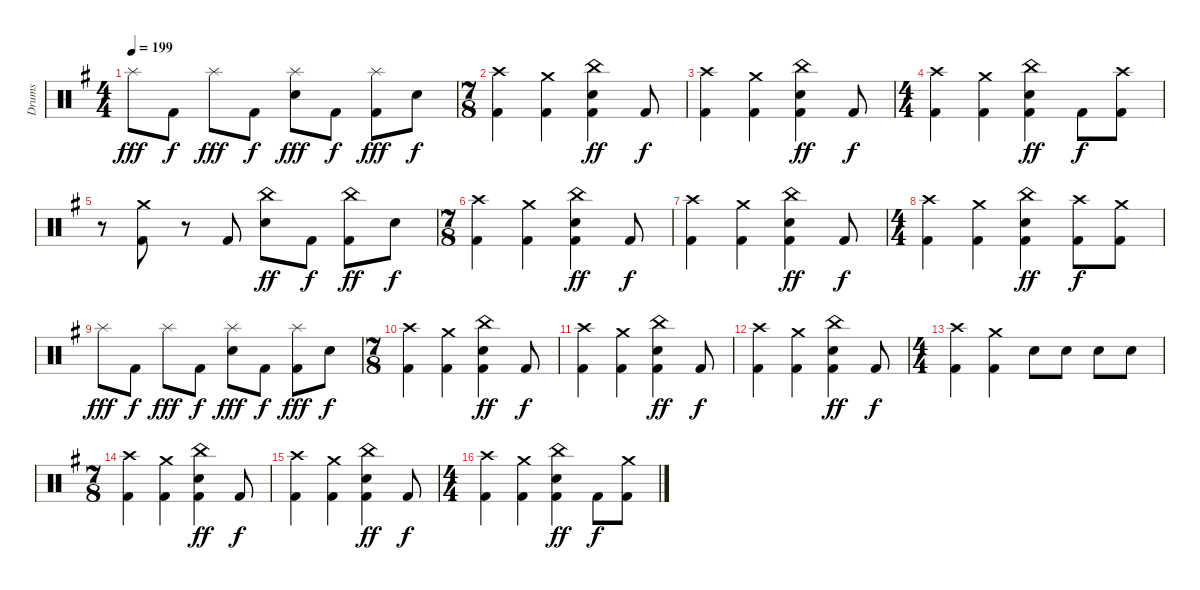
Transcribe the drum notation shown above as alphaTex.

\track ("Drums" "Drums") {instrument percussion}
\staff {score}
\articulation defaults
\ts (4 4)
\tempo 199
\clef neutral
\ks eminor "Splash (hit)".8{dy fff} "Kick (hit) 2".8{dy f} "Splash (hit)".8{dy fff} "Kick (hit) 2".8{dy f}
("Splash (hit)" "Electric Snare (hit)").8{dy fff} "Kick (hit) 2".8{dy f} ("Splash (hit)" "Kick (hit) 2").8{dy fff} "Electric Snare (hit)".8{dy f} |
\ts (7 8)
("Crash high (hit)" "Kick (hit) 2").4 ("Crash medium (hit)" "Kick (hit) 2").4 ("China (hit)" "Electric Snare (hit)" "Kick (hit) 2").4{dy ff} "Kick (hit) 2".8{dy f} |
("Crash high (hit)" "Kick (hit) 2").4 ("Crash medium (hit)" "Kick (hit) 2").4 ("China (hit)" "Electric Snare (hit)" "Kick (hit) 2").4{dy ff} "Kick (hit) 2".8{dy f} |
\ts (4 4)
("Crash high (hit)" "Kick (hit) 2").4 ("Crash medium (hit)" "Kick (hit) 2").4 ("China (hit)" "Electric Snare (hit)" "Kick (hit) 2").4{dy ff} "Kick (hit) 2".8{dy f} ("Crash high (hit)" "Kick (hit) 2").8 |
r.8 ("Crash medium (hit)" "Kick (hit) 2").8 r.8 "Kick (hit) 2".8 ("China (hit)" "Electric Snare (hit)").8{dy ff} "Kick (hit) 2".8{dy f} ("China (hit)" "Kick (hit) 2").8{dy ff} "Electric Snare (hit)".8{dy f} |
\ts (7 8)
("Crash high (hit)" "Kick (hit) 2").4 ("Crash medium (hit)" "Kick (hit) 2").4 ("China (hit)" "Electric Snare (hit)" "Kick (hit) 2").4{dy ff} "Kick (hit) 2".8{dy f} |
("Crash high (hit)" "Kick (hit) 2").4 ("Crash medium (hit)" "Kick (hit) 2").4 ("China (hit)" "Electric Snare (hit)" "Kick (hit) 2").4{dy ff} "Kick (hit) 2".8{dy f} |
\ts (4 4)
("Crash high (hit)" "Kick (hit) 2").4 ("Crash medium (hit)" "Kick (hit) 2").4 ("China (hit)" "Electric Snare (hit)" "Kick (hit) 2").4{dy ff} ("Crash high (hit)" "Kick (hit) 2").8{dy f} ("Crash medium (hit)" "Kick (hit) 2").8 |
"Splash (hit)".8{dy fff} "Kick (hit) 2".8{dy f} "Splash (hit)".8{dy fff} "Kick (hit) 2".8{dy f} ("Splash (hit)" "Electric Snare (hit)").8{dy fff} "Kick (hit) 2".8{dy f} ("Splash (hit)" "Kick (hit) 2").8{dy fff} "Electric Snare (hit)".8{dy f} |
\ts (7 8)
("Crash high (hit)" "Kick (hit) 2").4 ("Crash medium (hit)" "Kick (hit) 2").4 ("China (hit)" "Electric Snare (hit)" "Kick (hit) 2").4{dy ff} "Kick (hit) 2".8{dy f} |
("Crash high (hit)" "Kick (hit) 2").4 ("Crash medium (hit)" "Kick (hit) 2").4 ("China (hit)" "Electric Snare (hit)" "Kick (hit) 2").4{dy ff} "Kick (hit) 2".8{dy f} |
("Crash high (hit)" "Kick (hit) 2").4 ("Crash medium (hit)" "Kick (hit) 2").4 ("China (hit)" "Electric Snare (hit)" "Kick (hit) 2").4{dy ff} "Kick (hit) 2".8{dy f} |
\ts (4 4)
("Crash high (hit)" "Kick (hit) 2").4 ("Crash medium (hit)" "Kick (hit) 2").4 "Electric Snare (hit)".8 "Electric Snare (hit)".8 "Electric Snare (hit)".8 "Electric Snare (hit)".8 |
\ts (7 8)
("Crash high (hit)" "Kick (hit) 2").4 ("Crash medium (hit)" "Kick (hit) 2").4 ("China (hit)" "Electric Snare (hit)" "Kick (hit) 2").4{dy ff} "Kick (hit) 2".8{dy f} |
("Crash high (hit)" "Kick (hit) 2").4 ("Crash medium (hit)" "Kick (hit) 2").4 ("China (hit)" "Electric Snare (hit)" "Kick (hit) 2").4{dy ff} "Kick (hit) 2".8{dy f} |
\ts (4 4)
("Crash high (hit)" "Kick (hit) 2").4 ("Crash medium (hit)" "Kick (hit) 2").4 ("China (hit)" "Electric Snare (hit)" "Kick (hit) 2").4{dy ff} "Kick (hit) 2".8{dy f} ("Crash medium (hit)" "Kick (hit) 2").8
